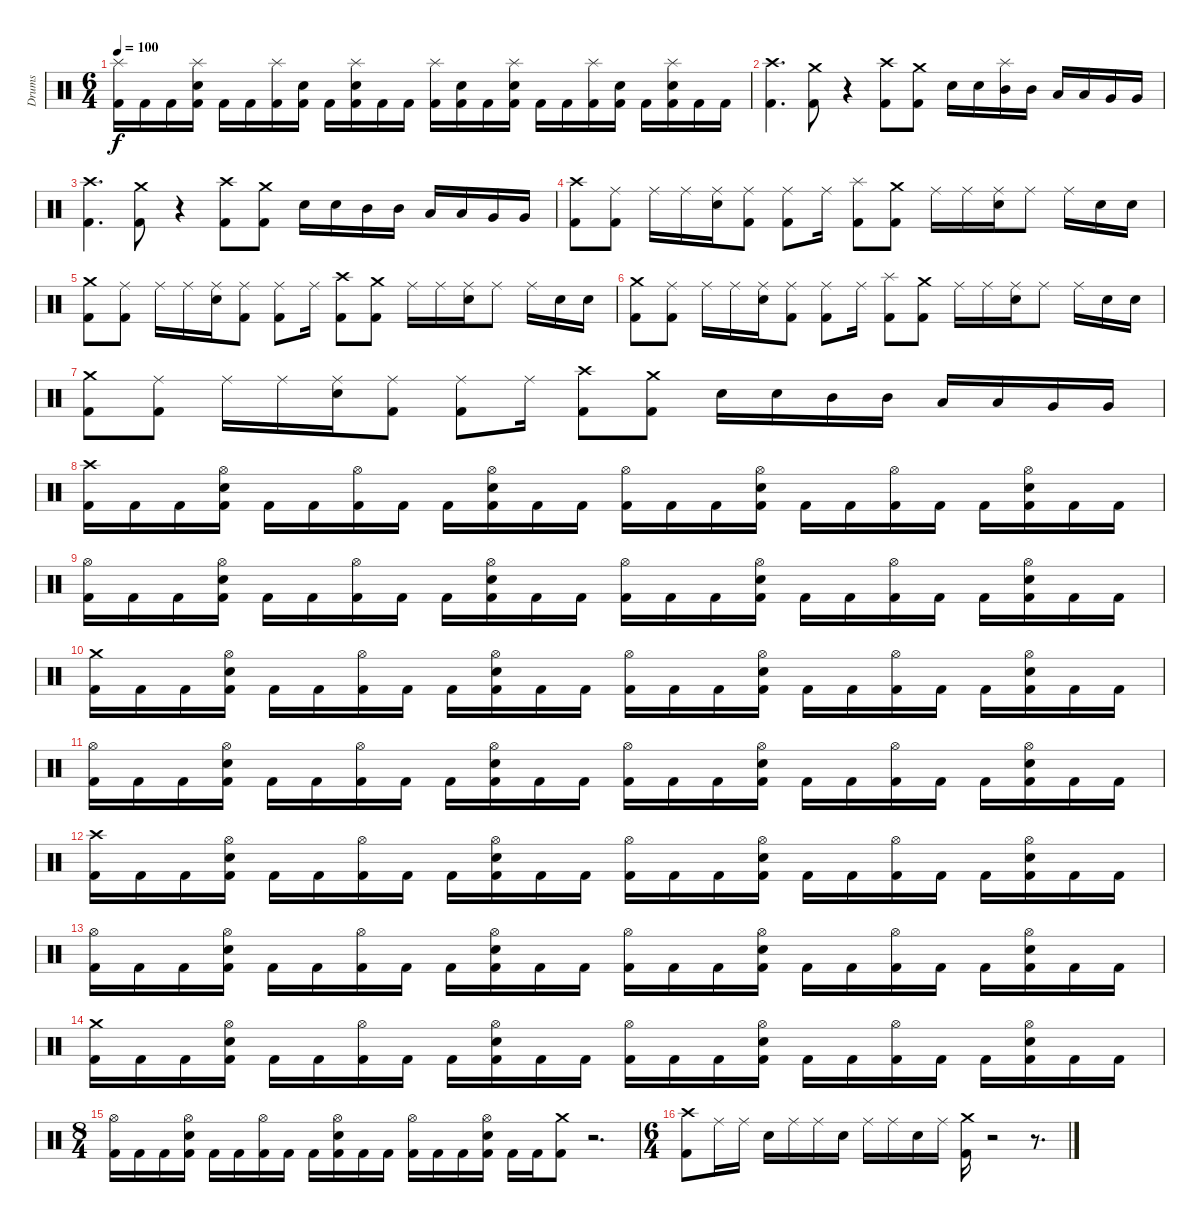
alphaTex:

\track ("Drums" "Drums") {instrument percussion}
\staff {score}
\articulation defaults
\ts (6 4)
\tempo 100
\clef neutral
\ks c
("Splash (hit)" "Kick (hit) 2").16{dy f} "Kick (hit) 2".16 "Kick (hit) 2".16 ("Splash (hit)" "Electric Snare (hit)" "Kick (hit) 2").16 "Kick (hit) 2".16 "Kick (hit) 2".16 ("Splash (hit)" "Kick (hit) 2").16 ("Electric Snare (hit)" "Kick (hit) 2").16 "Kick (hit) 2".16 ("Splash (hit)" "Electric Snare (hit)" "Kick (hit) 2").16 "Kick (hit) 2".16 "Kick (hit) 2".16 ("Splash (hit)" "Kick (hit) 2").16 ("Electric Snare (hit)" "Kick (hit) 2").16 "Kick (hit) 2".16 ("Splash (hit)" "Electric Snare (hit)" "Kick (hit) 2").16 "Kick (hit) 2".16 "Kick (hit) 2".16 ("Splash (hit)" "Kick (hit) 2").16 ("Electric Snare (hit)" "Kick (hit) 2").16 "Kick (hit) 2".16 ("Splash (hit)" "Electric Snare (hit)" "Kick (hit) 2").16 "Kick (hit) 2".16 "Kick (hit) 2".16 |
("Crash high (hit)" "Kick (hit) 2").4{d} ("Crash medium (hit)" "Kick (hit) 2").8 r.4{volume 0} ("Crash high (hit)" "Kick (hit) 2").8{volume 12} ("Crash medium (hit)" "Kick (hit) 2").8 "Electric Snare (hit)".16 "Electric Snare (hit)".16 ("Splash (hit)" "Mid Tom (hit)").16 "Mid Tom (hit)".16 "Low Tom (hit)".16 "Low Tom (hit)".16 "Very Low Tom (hit)".16 "Very Low Tom (hit)".16 |
("Crash high (hit)" "Kick (hit) 2").4{d} ("Crash medium (hit)" "Kick (hit) 2").8 r.4{volume 0} ("Crash high (hit)" "Kick (hit) 2").8{volume 12} ("Crash medium (hit)" "Kick (hit) 2").8 "Electric Snare (hit)".16 "Electric Snare (hit)".16 "Mid Tom (hit)".16 "Mid Tom (hit)".16 "Low Tom (hit)".16 "Low Tom (hit)".16 "Very Low Tom (hit)".16 "Very Low Tom (hit)".16 |
("Crash high (hit)" "Kick (hit) 2").8 ("Ride (middle)" "Kick (hit) 2").8 "Ride (middle)".16 "Ride (middle)".16 ("Ride (middle)" "Electric Snare (hit)").16 ("Ride (middle)" "Kick (hit) 2").8 ("Ride (middle)" "Kick (hit) 2").8 "Ride (middle)".16 ("Splash (hit)" "Kick (hit) 2").8 ("Crash medium (hit)" "Kick (hit) 2").8 "Ride (middle)".16 "Ride (middle)".16 ("Ride (middle)" "Electric Snare (hit)").16 "Ride (middle)".8 "Ride (middle)".16 "Electric Snare (hit)".16 "Electric Snare (hit)".16 |
("Crash medium (hit)" "Kick (hit) 2").8 ("Ride (middle)" "Kick (hit) 2").8 "Ride (middle)".16 "Ride (middle)".16 ("Ride (middle)" "Electric Snare (hit)").16 ("Ride (middle)" "Kick (hit) 2").8 ("Ride (middle)" "Kick (hit) 2").8 "Ride (middle)".16 ("Crash high (hit)" "Kick (hit) 2").8 ("Crash medium (hit)" "Kick (hit) 2").8 "Ride (middle)".16 "Ride (middle)".16 ("Ride (middle)" "Electric Snare (hit)").16 "Ride (middle)".8 "Ride (middle)".16 "Electric Snare (hit)".16 "Electric Snare (hit)".16 |
("Crash medium (hit)" "Kick (hit) 2").8 ("Ride (middle)" "Kick (hit) 2").8 "Ride (middle)".16 "Ride (middle)".16 ("Ride (middle)" "Electric Snare (hit)").16 ("Ride (middle)" "Kick (hit) 2").8 ("Ride (middle)" "Kick (hit) 2").8 "Ride (middle)".16 ("Splash (hit)" "Kick (hit) 2").8 ("Crash medium (hit)" "Kick (hit) 2").8 "Ride (middle)".16 "Ride (middle)".16 ("Ride (middle)" "Electric Snare (hit)").16 "Ride (middle)".8 "Ride (middle)".16 "Electric Snare (hit)".16 "Electric Snare (hit)".16 |
("Crash medium (hit)" "Kick (hit) 2").8 ("Ride (middle)" "Kick (hit) 2").8 "Ride (middle)".16 "Ride (middle)".16 ("Ride (middle)" "Electric Snare (hit)").16 ("Ride (middle)" "Kick (hit) 2").8 ("Ride (middle)" "Kick (hit) 2").8 "Ride (middle)".16 ("Crash high (hit)" "Kick (hit) 2").8 ("Crash medium (hit)" "Kick (hit) 2").8 "Electric Snare (hit)".16 "Electric Snare (hit)".16 "Mid Tom (hit)".16 "Mid Tom (hit)".16 "Low Tom (hit)".16 "Low Tom (hit)".16 "Very Low Tom (hit)".16 "Very Low Tom (hit)".16 |
("Crash high (hit)" "Kick (hit) 2").16 "Kick (hit) 2".16 "Kick (hit) 2".16 ("Hi-Hat (open)" "Electric Snare (hit)" "Kick (hit) 2").16 "Kick (hit) 2".16 "Kick (hit) 2".16 ("Hi-Hat (open)" "Kick (hit) 2").16 "Kick (hit) 2".16 "Kick (hit) 2".16 ("Hi-Hat (open)" "Electric Snare (hit)" "Kick (hit) 2").16 "Kick (hit) 2".16 "Kick (hit) 2".16 ("Hi-Hat (open)" "Kick (hit) 2").16 "Kick (hit) 2".16 "Kick (hit) 2".16 ("Hi-Hat (open)" "Electric Snare (hit)" "Kick (hit) 2").16 "Kick (hit) 2".16 "Kick (hit) 2".16 ("Hi-Hat (open)" "Kick (hit) 2").16 "Kick (hit) 2".16 "Kick (hit) 2".16 ("Hi-Hat (open)" "Electric Snare (hit)" "Kick (hit) 2").16 "Kick (hit) 2".16 "Kick (hit) 2".16 |
("Hi-Hat (open)" "Kick (hit) 2").16 "Kick (hit) 2".16 "Kick (hit) 2".16 ("Hi-Hat (open)" "Electric Snare (hit)" "Kick (hit) 2").16 "Kick (hit) 2".16 "Kick (hit) 2".16 ("Hi-Hat (open)" "Kick (hit) 2").16 "Kick (hit) 2".16 "Kick (hit) 2".16 ("Hi-Hat (open)" "Electric Snare (hit)" "Kick (hit) 2").16 "Kick (hit) 2".16 "Kick (hit) 2".16 ("Hi-Hat (open)" "Kick (hit) 2").16 "Kick (hit) 2".16 "Kick (hit) 2".16 ("Hi-Hat (open)" "Electric Snare (hit)" "Kick (hit) 2").16 "Kick (hit) 2".16 "Kick (hit) 2".16 ("Hi-Hat (open)" "Kick (hit) 2").16 "Kick (hit) 2".16 "Kick (hit) 2".16 ("Hi-Hat (open)" "Electric Snare (hit)" "Kick (hit) 2").16 "Kick (hit) 2".16 "Kick (hit) 2".16 |
("Crash medium (hit)" "Kick (hit) 2").16 "Kick (hit) 2".16 "Kick (hit) 2".16 ("Hi-Hat (open)" "Electric Snare (hit)" "Kick (hit) 2").16 "Kick (hit) 2".16 "Kick (hit) 2".16 ("Hi-Hat (open)" "Kick (hit) 2").16 "Kick (hit) 2".16 "Kick (hit) 2".16 ("Hi-Hat (open)" "Electric Snare (hit)" "Kick (hit) 2").16 "Kick (hit) 2".16 "Kick (hit) 2".16 ("Hi-Hat (open)" "Kick (hit) 2").16 "Kick (hit) 2".16 "Kick (hit) 2".16 ("Hi-Hat (open)" "Electric Snare (hit)" "Kick (hit) 2").16 "Kick (hit) 2".16 "Kick (hit) 2".16 ("Hi-Hat (open)" "Kick (hit) 2").16 "Kick (hit) 2".16 "Kick (hit) 2".16 ("Hi-Hat (open)" "Electric Snare (hit)" "Kick (hit) 2").16 "Kick (hit) 2".16 "Kick (hit) 2".16 |
("Hi-Hat (open)" "Kick (hit) 2").16 "Kick (hit) 2".16 "Kick (hit) 2".16 ("Hi-Hat (open)" "Electric Snare (hit)" "Kick (hit) 2").16 "Kick (hit) 2".16 "Kick (hit) 2".16 ("Hi-Hat (open)" "Kick (hit) 2").16 "Kick (hit) 2".16 "Kick (hit) 2".16 ("Hi-Hat (open)" "Electric Snare (hit)" "Kick (hit) 2").16 "Kick (hit) 2".16 "Kick (hit) 2".16 ("Hi-Hat (open)" "Kick (hit) 2").16 "Kick (hit) 2".16 "Kick (hit) 2".16 ("Hi-Hat (open)" "Electric Snare (hit)" "Kick (hit) 2").16 "Kick (hit) 2".16 "Kick (hit) 2".16 ("Hi-Hat (open)" "Kick (hit) 2").16 "Kick (hit) 2".16 "Kick (hit) 2".16 ("Hi-Hat (open)" "Electric Snare (hit)" "Kick (hit) 2").16 "Kick (hit) 2".16 "Kick (hit) 2".16 |
("Crash high (hit)" "Kick (hit) 2").16 "Kick (hit) 2".16 "Kick (hit) 2".16 ("Hi-Hat (open)" "Electric Snare (hit)" "Kick (hit) 2").16 "Kick (hit) 2".16 "Kick (hit) 2".16 ("Hi-Hat (open)" "Kick (hit) 2").16 "Kick (hit) 2".16 "Kick (hit) 2".16 ("Hi-Hat (open)" "Electric Snare (hit)" "Kick (hit) 2").16 "Kick (hit) 2".16 "Kick (hit) 2".16 ("Hi-Hat (open)" "Kick (hit) 2").16 "Kick (hit) 2".16 "Kick (hit) 2".16 ("Hi-Hat (open)" "Electric Snare (hit)" "Kick (hit) 2").16 "Kick (hit) 2".16 "Kick (hit) 2".16 ("Hi-Hat (open)" "Kick (hit) 2").16 "Kick (hit) 2".16 "Kick (hit) 2".16 ("Hi-Hat (open)" "Electric Snare (hit)" "Kick (hit) 2").16 "Kick (hit) 2".16 "Kick (hit) 2".16 |
("Hi-Hat (open)" "Kick (hit) 2").16 "Kick (hit) 2".16 "Kick (hit) 2".16 ("Hi-Hat (open)" "Electric Snare (hit)" "Kick (hit) 2").16 "Kick (hit) 2".16 "Kick (hit) 2".16 ("Hi-Hat (open)" "Kick (hit) 2").16 "Kick (hit) 2".16 "Kick (hit) 2".16 ("Hi-Hat (open)" "Electric Snare (hit)" "Kick (hit) 2").16 "Kick (hit) 2".16 "Kick (hit) 2".16 ("Hi-Hat (open)" "Kick (hit) 2").16 "Kick (hit) 2".16 "Kick (hit) 2".16 ("Hi-Hat (open)" "Electric Snare (hit)" "Kick (hit) 2").16 "Kick (hit) 2".16 "Kick (hit) 2".16 ("Hi-Hat (open)" "Kick (hit) 2").16 "Kick (hit) 2".16 "Kick (hit) 2".16 ("Hi-Hat (open)" "Electric Snare (hit)" "Kick (hit) 2").16 "Kick (hit) 2".16 "Kick (hit) 2".16 |
("Crash medium (hit)" "Kick (hit) 2").16 "Kick (hit) 2".16 "Kick (hit) 2".16 ("Hi-Hat (open)" "Electric Snare (hit)" "Kick (hit) 2").16 "Kick (hit) 2".16 "Kick (hit) 2".16 ("Hi-Hat (open)" "Kick (hit) 2").16 "Kick (hit) 2".16 "Kick (hit) 2".16 ("Hi-Hat (open)" "Electric Snare (hit)" "Kick (hit) 2").16 "Kick (hit) 2".16 "Kick (hit) 2".16 ("Hi-Hat (open)" "Kick (hit) 2").16 "Kick (hit) 2".16 "Kick (hit) 2".16 ("Hi-Hat (open)" "Electric Snare (hit)" "Kick (hit) 2").16 "Kick (hit) 2".16 "Kick (hit) 2".16 ("Hi-Hat (open)" "Kick (hit) 2").16 "Kick (hit) 2".16 "Kick (hit) 2".16 ("Hi-Hat (open)" "Electric Snare (hit)" "Kick (hit) 2").16 "Kick (hit) 2".16 "Kick (hit) 2".16 |
\ts (8 4)
("Hi-Hat (open)" "Kick (hit) 2").16 "Kick (hit) 2".16 "Kick (hit) 2".16 ("Hi-Hat (open)" "Electric Snare (hit)" "Kick (hit) 2").16 "Kick (hit) 2".16 "Kick (hit) 2".16 ("Hi-Hat (open)" "Kick (hit) 2").16 "Kick (hit) 2".16 "Kick (hit) 2".16 ("Hi-Hat (open)" "Electric Snare (hit)" "Kick (hit) 2").16 "Kick (hit) 2".16 "Kick (hit) 2".16 ("Hi-Hat (open)" "Kick (hit) 2").16 "Kick (hit) 2".16 "Kick (hit) 2".16 ("Hi-Hat (open)" "Electric Snare (hit)" "Kick (hit) 2").16 "Kick (hit) 2".16 "Kick (hit) 2".16 ("Crash medium (hit)" "Kick (hit) 2").8 r.2{d volume 0} |
\ts (6 4)
("Crash high (hit)" "Kick (hit) 2").8{volume 12} "Ride (middle)".16 "Ride (middle)".16 "Electric Snare (hit)".16 "Ride (middle)".16 "Ride (middle)".16 "Electric Snare (hit)".16 "Ride (middle)".16 "Ride (middle)".16 "Electric Snare (hit)".16 "Ride (middle)".16 ("Crash medium (hit)" "Kick (hit) 2").16 r.2{volume 0} r.8{d}
